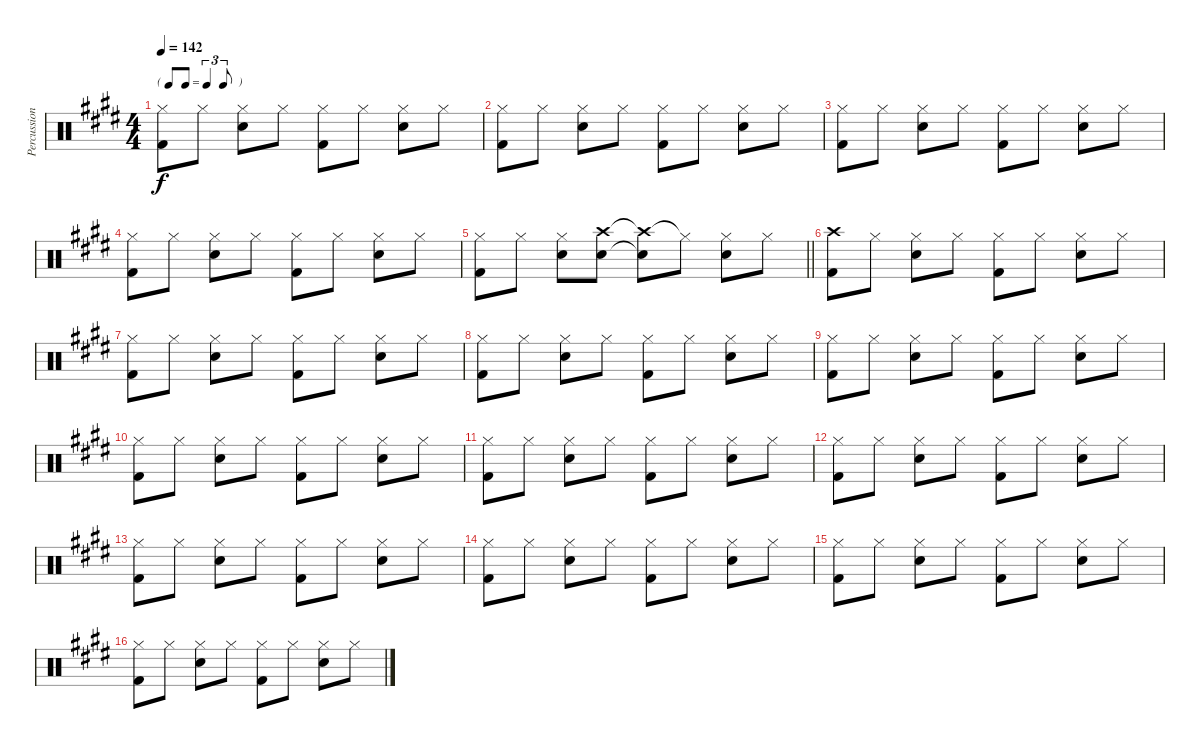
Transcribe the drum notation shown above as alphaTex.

\track ("Percussion" "Percussion") {instrument percussion}
\staff {score}
\articulation defaults
\ts (4 4)
\tf triplet8th
\tempo 142
\clef neutral
\ks e
("Hi-Hat (closed)" "Kick (hit) 2").8{dy f} "Hi-Hat (closed)".8 ("Hi-Hat (closed)" "Snare (hit) 2").8 "Hi-Hat (closed)".8 ("Hi-Hat (closed)" "Kick (hit) 2").8 "Hi-Hat (closed)".8 ("Hi-Hat (closed)" "Snare (hit) 2").8 "Hi-Hat (closed)".8 |
("Hi-Hat (closed)" "Kick (hit) 2").8 "Hi-Hat (closed)".8 ("Hi-Hat (closed)" "Snare (hit) 2").8 "Hi-Hat (closed)".8 ("Hi-Hat (closed)" "Kick (hit) 2").8 "Hi-Hat (closed)".8 ("Hi-Hat (closed)" "Snare (hit) 2").8 "Hi-Hat (closed)".8 |
("Hi-Hat (closed)" "Kick (hit) 2").8 "Hi-Hat (closed)".8 ("Hi-Hat (closed)" "Snare (hit) 2").8 "Hi-Hat (closed)".8 ("Hi-Hat (closed)" "Kick (hit) 2").8 "Hi-Hat (closed)".8 ("Hi-Hat (closed)" "Snare (hit) 2").8 "Hi-Hat (closed)".8 |
("Hi-Hat (closed)" "Kick (hit) 2").8 "Hi-Hat (closed)".8 ("Hi-Hat (closed)" "Snare (hit) 2").8 "Hi-Hat (closed)".8 ("Hi-Hat (closed)" "Kick (hit) 2").8 "Hi-Hat (closed)".8 ("Hi-Hat (closed)" "Snare (hit) 2").8 "Hi-Hat (closed)".8 |
\barLineRight lightlight
("Hi-Hat (closed)" "Kick (hit) 2").8 "Hi-Hat (closed)".8 ("Hi-Hat (closed)" "Snare (hit) 2").8 ("Crash high (hit)" "Snare (hit) 2").8 ("Crash high (hit)"{t} "Snare (hit) 2"{t}).8 "Hi-Hat (closed)"{t}.8 ("Hi-Hat (closed)" "Snare (hit) 2").8 "Hi-Hat (closed)".8 |
("Crash high (hit)" "Kick (hit) 2").8 "Hi-Hat (closed)".8 ("Hi-Hat (closed)" "Snare (hit) 2").8 "Hi-Hat (closed)".8 ("Hi-Hat (closed)" "Kick (hit) 2").8 "Hi-Hat (closed)".8 ("Hi-Hat (closed)" "Snare (hit) 2").8 "Hi-Hat (closed)".8 |
("Hi-Hat (closed)" "Kick (hit) 2").8 "Hi-Hat (closed)".8 ("Hi-Hat (closed)" "Snare (hit) 2").8 "Hi-Hat (closed)".8 ("Hi-Hat (closed)" "Kick (hit) 2").8 "Hi-Hat (closed)".8 ("Hi-Hat (closed)" "Snare (hit) 2").8 "Hi-Hat (closed)".8 |
("Hi-Hat (closed)" "Kick (hit) 2").8 "Hi-Hat (closed)".8 ("Hi-Hat (closed)" "Snare (hit) 2").8 "Hi-Hat (closed)".8 ("Hi-Hat (closed)" "Kick (hit) 2").8 "Hi-Hat (closed)".8 ("Hi-Hat (closed)" "Snare (hit) 2").8 "Hi-Hat (closed)".8 |
("Hi-Hat (closed)" "Kick (hit) 2").8 "Hi-Hat (closed)".8 ("Hi-Hat (closed)" "Snare (hit) 2").8 "Hi-Hat (closed)".8 ("Hi-Hat (closed)" "Kick (hit) 2").8 "Hi-Hat (closed)".8 ("Hi-Hat (closed)" "Snare (hit) 2").8 "Hi-Hat (closed)".8 |
("Hi-Hat (closed)" "Kick (hit) 2").8 "Hi-Hat (closed)".8 ("Hi-Hat (closed)" "Snare (hit) 2").8 "Hi-Hat (closed)".8 ("Hi-Hat (closed)" "Kick (hit) 2").8 "Hi-Hat (closed)".8 ("Hi-Hat (closed)" "Snare (hit) 2").8 "Hi-Hat (closed)".8 |
("Hi-Hat (closed)" "Kick (hit) 2").8 "Hi-Hat (closed)".8 ("Hi-Hat (closed)" "Snare (hit) 2").8 "Hi-Hat (closed)".8 ("Hi-Hat (closed)" "Kick (hit) 2").8 "Hi-Hat (closed)".8 ("Hi-Hat (closed)" "Snare (hit) 2").8 "Hi-Hat (closed)".8 |
("Hi-Hat (closed)" "Kick (hit) 2").8 "Hi-Hat (closed)".8 ("Hi-Hat (closed)" "Snare (hit) 2").8 "Hi-Hat (closed)".8 ("Hi-Hat (closed)" "Kick (hit) 2").8 "Hi-Hat (closed)".8 ("Hi-Hat (closed)" "Snare (hit) 2").8 "Hi-Hat (closed)".8 |
("Hi-Hat (closed)" "Kick (hit) 2").8 "Hi-Hat (closed)".8 ("Hi-Hat (closed)" "Snare (hit) 2").8 "Hi-Hat (closed)".8 ("Hi-Hat (closed)" "Kick (hit) 2").8 "Hi-Hat (closed)".8 ("Hi-Hat (closed)" "Snare (hit) 2").8 "Hi-Hat (closed)".8 |
("Hi-Hat (closed)" "Kick (hit) 2").8 "Hi-Hat (closed)".8 ("Hi-Hat (closed)" "Snare (hit) 2").8 "Hi-Hat (closed)".8 ("Hi-Hat (closed)" "Kick (hit) 2").8 "Hi-Hat (closed)".8 ("Hi-Hat (closed)" "Snare (hit) 2").8 "Hi-Hat (closed)".8 |
("Hi-Hat (closed)" "Kick (hit) 2").8 "Hi-Hat (closed)".8 ("Hi-Hat (closed)" "Snare (hit) 2").8 "Hi-Hat (closed)".8 ("Hi-Hat (closed)" "Kick (hit) 2").8 "Hi-Hat (closed)".8 ("Hi-Hat (closed)" "Snare (hit) 2").8 "Hi-Hat (closed)".8 |
("Hi-Hat (closed)" "Kick (hit) 2").8 "Hi-Hat (closed)".8 ("Hi-Hat (closed)" "Snare (hit) 2").8 "Hi-Hat (closed)".8 ("Hi-Hat (closed)" "Kick (hit) 2").8 "Hi-Hat (closed)".8 ("Hi-Hat (closed)" "Snare (hit) 2").8 "Hi-Hat (closed)".8
